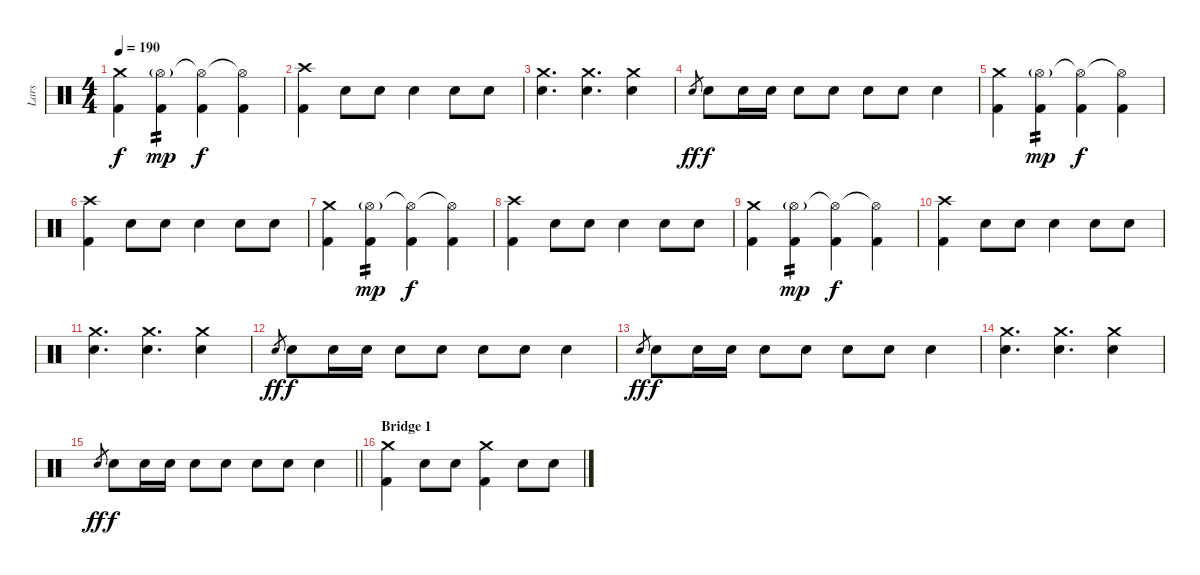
\track ("Lars" "Lars") {instrument percussion}
\staff {score}
\articulation defaults
\ts (4 4)
\tempo 190
\clef neutral
\ks c
("Crash medium (hit)" "Kick (hit) 2").4{dy f} ("Hi-Hat (open)"{g} "Kick (hit) 2").4{tp 2 dy mp} ("Hi-Hat (open)"{t} "Kick (hit) 2").4{dy f} ("Hi-Hat (open)"{t} "Kick (hit) 2").4 |
("Crash high (hit)" "Kick (hit) 2").4 "Electric Snare (hit)".8 "Electric Snare (hit)".8 "Electric Snare (hit)".4 "Electric Snare (hit)".8 "Electric Snare (hit)".8 |
("Crash medium (hit)" "Electric Snare (hit)").4{d} ("Crash medium (hit)" "Electric Snare (hit)").4{d} ("Crash medium (hit)" "Electric Snare (hit)").4 |
"Electric Snare (hit)".8{gr dy ff} "Electric Snare (hit)".8{dy f} "Electric Snare (hit)".16 "Electric Snare (hit)".16 "Electric Snare (hit)".8 "Electric Snare (hit)".8 "Electric Snare (hit)".8 "Electric Snare (hit)".8 "Electric Snare (hit)".4 |
("Crash medium (hit)" "Kick (hit) 2").4 ("Hi-Hat (open)"{g} "Kick (hit) 2").4{tp 2 dy mp} ("Hi-Hat (open)"{t} "Kick (hit) 2").4{dy f} ("Hi-Hat (open)"{t} "Kick (hit) 2").4 |
("Crash high (hit)" "Kick (hit) 2").4 "Electric Snare (hit)".8 "Electric Snare (hit)".8 "Electric Snare (hit)".4 "Electric Snare (hit)".8 "Electric Snare (hit)".8 |
("Crash medium (hit)" "Kick (hit) 2").4 ("Hi-Hat (open)"{g} "Kick (hit) 2").4{tp 2 dy mp} ("Hi-Hat (open)"{t} "Kick (hit) 2").4{dy f} ("Hi-Hat (open)"{t} "Kick (hit) 2").4 |
("Crash high (hit)" "Kick (hit) 2").4 "Electric Snare (hit)".8 "Electric Snare (hit)".8 "Electric Snare (hit)".4 "Electric Snare (hit)".8 "Electric Snare (hit)".8 |
("Crash medium (hit)" "Kick (hit) 2").4 ("Hi-Hat (open)"{g} "Kick (hit) 2").4{tp 2 dy mp} ("Hi-Hat (open)"{t} "Kick (hit) 2").4{dy f} ("Hi-Hat (open)"{t} "Kick (hit) 2").4 |
("Crash high (hit)" "Kick (hit) 2").4 "Electric Snare (hit)".8 "Electric Snare (hit)".8 "Electric Snare (hit)".4 "Electric Snare (hit)".8 "Electric Snare (hit)".8 |
("Crash medium (hit)" "Electric Snare (hit)").4{d} ("Crash medium (hit)" "Electric Snare (hit)").4{d} ("Crash medium (hit)" "Electric Snare (hit)").4 |
"Electric Snare (hit)".8{gr dy ff} "Electric Snare (hit)".8{dy f} "Electric Snare (hit)".16 "Electric Snare (hit)".16 "Electric Snare (hit)".8 "Electric Snare (hit)".8 "Electric Snare (hit)".8 "Electric Snare (hit)".8 "Electric Snare (hit)".4 |
"Electric Snare (hit)".8{gr dy ff} "Electric Snare (hit)".8{dy f} "Electric Snare (hit)".16 "Electric Snare (hit)".16 "Electric Snare (hit)".8 "Electric Snare (hit)".8 "Electric Snare (hit)".8 "Electric Snare (hit)".8 "Electric Snare (hit)".4 |
("Crash medium (hit)" "Electric Snare (hit)").4{d} ("Crash medium (hit)" "Electric Snare (hit)").4{d} ("Crash medium (hit)" "Electric Snare (hit)").4 |
\barLineRight lightlight "Electric Snare (hit)".8{gr dy ff} "Electric Snare (hit)".8{dy f} "Electric Snare (hit)".16 "Electric Snare (hit)".16 "Electric Snare (hit)".8 "Electric Snare (hit)".8 "Electric Snare (hit)".8 "Electric Snare (hit)".8 "Electric Snare (hit)".4
|
\section ("" "Bridge 1")
("Crash medium (hit)" "Kick (hit) 2").4 "Electric Snare (hit)".8 "Electric Snare (hit)".8 ("Crash medium (hit)" "Kick (hit) 2").4 "Electric Snare (hit)".8 "Electric Snare (hit)".8
